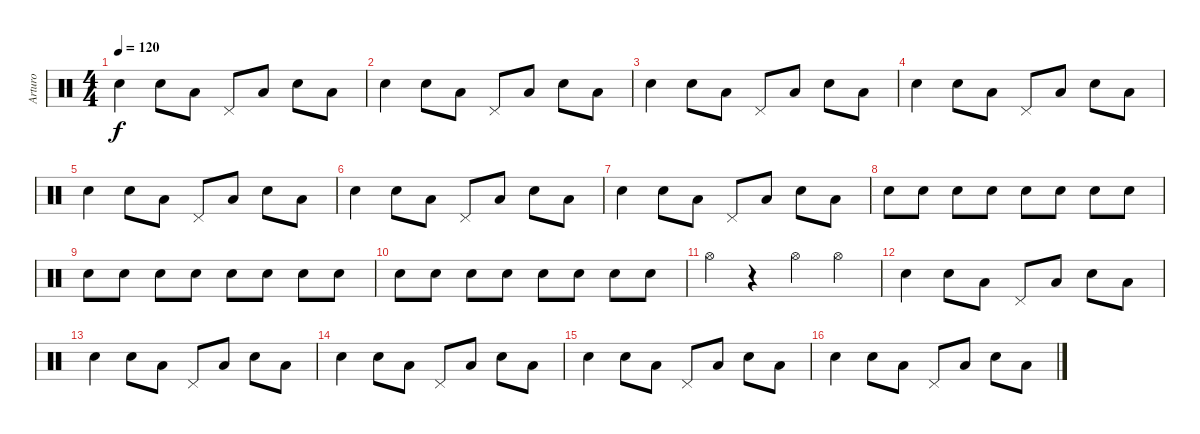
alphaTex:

\track ("Arturo" "Arturo") {instrument percussion}
\staff {score}
\articulation defaults
\ts (4 4)
\tempo 120
\clef neutral
\ks c "Snare (hit) 2".4{dy f} "Snare (hit) 2".8 "Low Tom (hit)".8 "Pedal Hi-Hat (hit)".8 "Low Tom (hit)".8 "Snare (hit) 2".8 "Low Tom (hit)".8
|
"Snare (hit) 2".4 "Snare (hit) 2".8 "Low Tom (hit)".8 "Pedal Hi-Hat (hit)".8 "Low Tom (hit)".8 "Snare (hit) 2".8 "Low Tom (hit)".8 |
"Snare (hit) 2".4 "Snare (hit) 2".8 "Low Tom (hit)".8 "Pedal Hi-Hat (hit)".8 "Low Tom (hit)".8 "Snare (hit) 2".8 "Low Tom (hit)".8 |
"Snare (hit) 2".4 "Snare (hit) 2".8 "Low Tom (hit)".8 "Pedal Hi-Hat (hit)".8 "Low Tom (hit)".8 "Snare (hit) 2".8 "Low Tom (hit)".8 |
"Snare (hit) 2".4 "Snare (hit) 2".8 "Low Tom (hit)".8 "Pedal Hi-Hat (hit)".8 "Low Tom (hit)".8 "Snare (hit) 2".8 "Low Tom (hit)".8 |
"Snare (hit) 2".4 "Snare (hit) 2".8 "Low Tom (hit)".8 "Pedal Hi-Hat (hit)".8 "Low Tom (hit)".8 "Snare (hit) 2".8 "Low Tom (hit)".8 |
"Snare (hit) 2".4 "Snare (hit) 2".8 "Low Tom (hit)".8 "Pedal Hi-Hat (hit)".8 "Low Tom (hit)".8 "Snare (hit) 2".8 "Low Tom (hit)".8 |
"Snare (hit) 2".8 "Electric Snare (hit)".8 "Snare (hit) 2".8 "Electric Snare (hit)".8 "Snare (hit) 2".8 "Electric Snare (hit)".8 "Snare (hit) 2".8 "Electric Snare (hit)".8 |
"Snare (hit) 2".8 "Electric Snare (hit)".8 "Snare (hit) 2".8 "Electric Snare (hit)".8 "Snare (hit) 2".8 "Electric Snare (hit)".8 "Snare (hit) 2".8 "Electric Snare (hit)".8 |
"Snare (hit) 2".8 "Electric Snare (hit)".8 "Snare (hit) 2".8 "Electric Snare (hit)".8 "Snare (hit) 2".8 "Electric Snare (hit)".8 "Snare (hit) 2".8 "Electric Snare (hit)".8 |
"Hi-Hat (open)".4 r.4 "Hi-Hat (open)".4 "Hi-Hat (open)".4 |
"Snare (hit) 2".4 "Snare (hit) 2".8 "Low Tom (hit)".8 "Pedal Hi-Hat (hit)".8 "Low Tom (hit)".8 "Snare (hit) 2".8 "Low Tom (hit)".8 |
"Snare (hit) 2".4 "Snare (hit) 2".8 "Low Tom (hit)".8 "Pedal Hi-Hat (hit)".8 "Low Tom (hit)".8 "Snare (hit) 2".8 "Low Tom (hit)".8 |
"Snare (hit) 2".4 "Snare (hit) 2".8 "Low Tom (hit)".8 "Pedal Hi-Hat (hit)".8 "Low Tom (hit)".8 "Snare (hit) 2".8 "Low Tom (hit)".8 |
"Snare (hit) 2".4 "Snare (hit) 2".8 "Low Tom (hit)".8 "Pedal Hi-Hat (hit)".8 "Low Tom (hit)".8 "Snare (hit) 2".8 "Low Tom (hit)".8 |
"Snare (hit) 2".4 "Snare (hit) 2".8 "Low Tom (hit)".8 "Pedal Hi-Hat (hit)".8 "Low Tom (hit)".8 "Snare (hit) 2".8 "Low Tom (hit)".8
